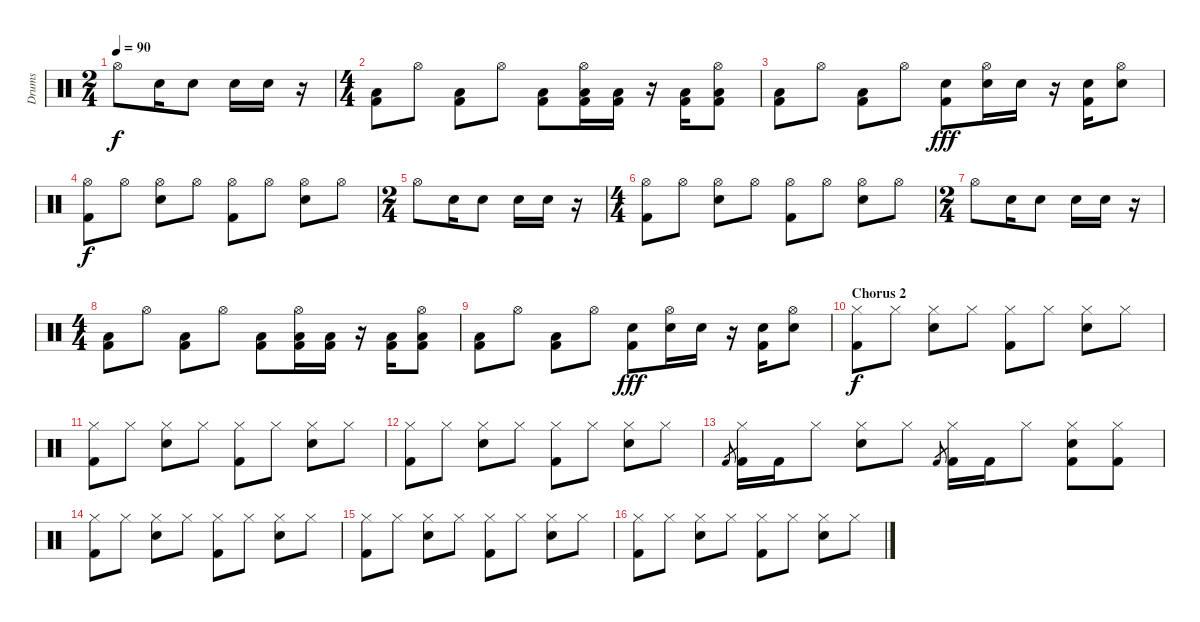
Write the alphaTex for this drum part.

\track ("Drums" "Drums") {instrument percussion}
\staff {score}
\articulation defaults
\ts (2 4)
\tempo 90
\clef neutral
\ks c "Hi-Hat (open)".8{dy f} "Electric Snare (hit)".16 "Electric Snare (hit)".8 "Electric Snare (hit)".16 "Electric Snare (hit)".16
r.16 |
\ts (4 4)
("Low Floor Tom (hit)" "Kick (hit) 2").8 "Hi-Hat (open)".8 ("Low Floor Tom (hit)" "Kick (hit) 2").8 "Hi-Hat (open)".8 ("Low Floor Tom (hit)" "Kick (hit) 2").8 ("Hi-Hat (open)" "Low Floor Tom (hit)" "Kick (hit) 2").16 ("Low Floor Tom (hit)" "Kick (hit) 2").16 r.16 ("Low Floor Tom (hit)" "Kick (hit) 2").16 ("Hi-Hat (open)" "Low Floor Tom (hit)" "Kick (hit) 2").8 |
("Low Floor Tom (hit)" "Kick (hit) 2").8 "Hi-Hat (open)".8 ("Low Floor Tom (hit)" "Kick (hit) 2").8 "Hi-Hat (open)".8 ("Electric Snare (hit)" "Kick (hit) 2").8{dy fff} ("Hi-Hat (open)" "Electric Snare (hit)").16 "Electric Snare (hit)".16 r.16 ("Electric Snare (hit)" "Kick (hit) 2").16 ("Hi-Hat (open)" "Electric Snare (hit)").8 |
("Hi-Hat (open)" "Kick (hit) 2").8{dy f} "Hi-Hat (open)".8 ("Hi-Hat (open)" "Electric Snare (hit)").8 "Hi-Hat (open)".8 ("Hi-Hat (open)" "Kick (hit) 2").8 "Hi-Hat (open)".8 ("Hi-Hat (open)" "Electric Snare (hit)").8 "Hi-Hat (open)".8 |
\ts (2 4)
"Hi-Hat (open)".8 "Electric Snare (hit)".16 "Electric Snare (hit)".8 "Electric Snare (hit)".16 "Electric Snare (hit)".16 r.16 |
\ts (4 4)
("Hi-Hat (open)" "Kick (hit) 2").8 "Hi-Hat (open)".8 ("Hi-Hat (open)" "Electric Snare (hit)").8 "Hi-Hat (open)".8 ("Hi-Hat (open)" "Kick (hit) 2").8 "Hi-Hat (open)".8 ("Hi-Hat (open)" "Electric Snare (hit)").8 "Hi-Hat (open)".8 |
\ts (2 4)
"Hi-Hat (open)".8 "Electric Snare (hit)".16 "Electric Snare (hit)".8 "Electric Snare (hit)".16 "Electric Snare (hit)".16 r.16 |
\ts (4 4)
("Low Floor Tom (hit)" "Kick (hit) 2").8 "Hi-Hat (open)".8 ("Low Floor Tom (hit)" "Kick (hit) 2").8 "Hi-Hat (open)".8 ("Low Floor Tom (hit)" "Kick (hit) 2").8 ("Hi-Hat (open)" "Low Floor Tom (hit)" "Kick (hit) 2").16 ("Low Floor Tom (hit)" "Kick (hit) 2").16 r.16 ("Low Floor Tom (hit)" "Kick (hit) 2").16 ("Hi-Hat (open)" "Low Floor Tom (hit)" "Kick (hit) 2").8 |
("Low Floor Tom (hit)" "Kick (hit) 2").8 "Hi-Hat (open)".8 ("Low Floor Tom (hit)" "Kick (hit) 2").8 "Hi-Hat (open)".8 ("Electric Snare (hit)" "Kick (hit) 2").8{dy fff} ("Hi-Hat (open)" "Electric Snare (hit)").16 "Electric Snare (hit)".16 r.16 ("Electric Snare (hit)" "Kick (hit) 2").16 ("Hi-Hat (open)" "Electric Snare (hit)").8 |
\section ("" "Chorus 2")
("Hi-Hat (closed)" "Kick (hit) 2").8{dy f} "Hi-Hat (closed)".8 ("Hi-Hat (closed)" "Electric Snare (hit)").8 "Hi-Hat (closed)".8 ("Hi-Hat (closed)" "Kick (hit) 2").8 "Hi-Hat (closed)".8 ("Hi-Hat (closed)" "Electric Snare (hit)").8 "Hi-Hat (closed)".8 |
("Hi-Hat (closed)" "Kick (hit) 2").8 "Hi-Hat (closed)".8 ("Hi-Hat (closed)" "Electric Snare (hit)").8 "Hi-Hat (closed)".8 ("Hi-Hat (closed)" "Kick (hit) 2").8 "Hi-Hat (closed)".8 ("Hi-Hat (closed)" "Electric Snare (hit)").8 "Hi-Hat (closed)".8 |
("Hi-Hat (closed)" "Kick (hit) 2").8 "Hi-Hat (closed)".8 ("Hi-Hat (closed)" "Electric Snare (hit)").8 "Hi-Hat (closed)".8 ("Hi-Hat (closed)" "Kick (hit) 2").8 "Hi-Hat (closed)".8 ("Hi-Hat (closed)" "Electric Snare (hit)").8 "Hi-Hat (closed)".8 |
"Kick (hit) 2".8{gr} ("Hi-Hat (closed)" "Kick (hit) 2").16 "Kick (hit) 2".16 "Hi-Hat (closed)".8 ("Hi-Hat (closed)" "Electric Snare (hit)").8 "Hi-Hat (closed)".8 "Kick (hit) 2".8{gr} ("Hi-Hat (closed)" "Kick (hit) 2").16 "Kick (hit) 2".16 "Hi-Hat (closed)".8 ("Hi-Hat (closed)" "Electric Snare (hit)" "Kick (hit) 2").8 ("Hi-Hat (closed)" "Kick (hit) 2").8 |
("Hi-Hat (closed)" "Kick (hit) 2").8 "Hi-Hat (closed)".8 ("Hi-Hat (closed)" "Electric Snare (hit)").8 "Hi-Hat (closed)".8 ("Hi-Hat (closed)" "Kick (hit) 2").8 "Hi-Hat (closed)".8 ("Hi-Hat (closed)" "Electric Snare (hit)").8 "Hi-Hat (closed)".8 |
("Hi-Hat (closed)" "Kick (hit) 2").8 "Hi-Hat (closed)".8 ("Hi-Hat (closed)" "Electric Snare (hit)").8 "Hi-Hat (closed)".8 ("Hi-Hat (closed)" "Kick (hit) 2").8 "Hi-Hat (closed)".8 ("Hi-Hat (closed)" "Electric Snare (hit)").8 "Hi-Hat (closed)".8 |
("Hi-Hat (closed)" "Kick (hit) 2").8 "Hi-Hat (closed)".8 ("Hi-Hat (closed)" "Electric Snare (hit)").8 "Hi-Hat (closed)".8 ("Hi-Hat (closed)" "Kick (hit) 2").8 "Hi-Hat (closed)".8 ("Hi-Hat (closed)" "Electric Snare (hit)").8 "Hi-Hat (closed)".8
